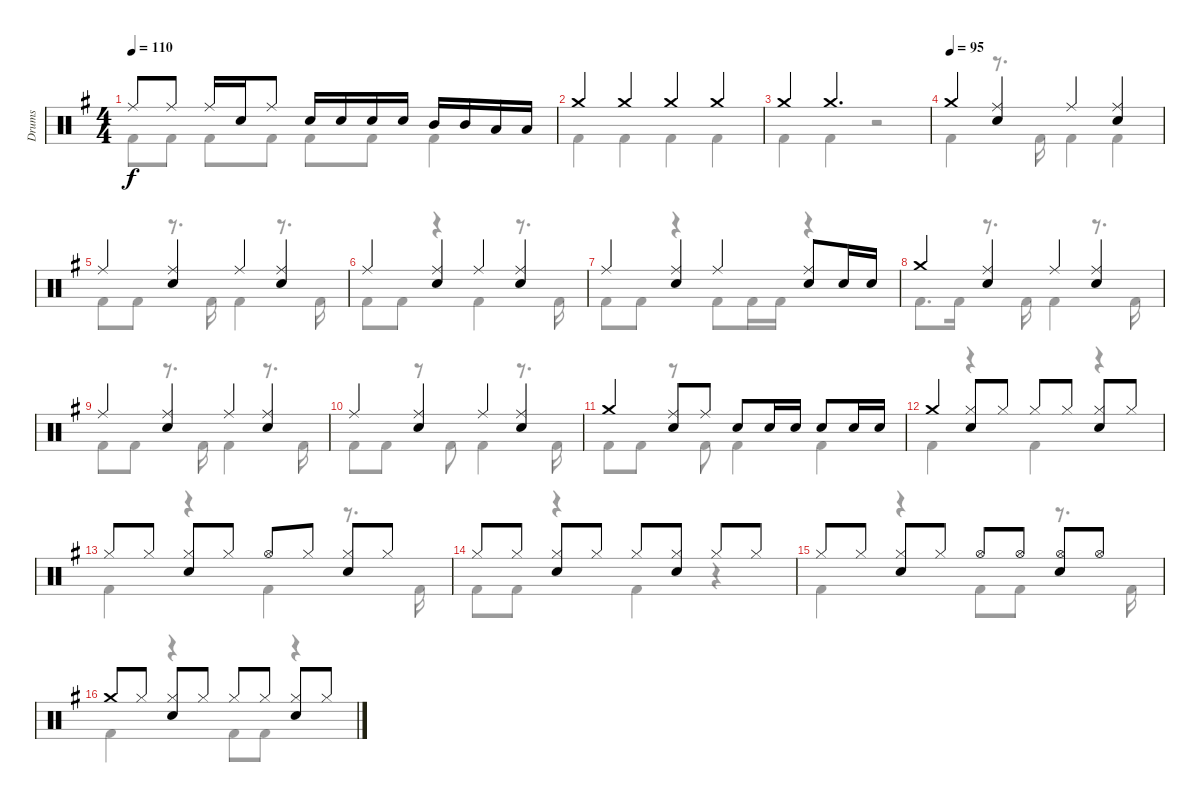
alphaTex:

\track ("Drums" "Drums") {instrument percussion}
\staff {score}
\articulation defaults
\voice
\ts (4 4)
\tempo 110
\clef neutral
\ks g "Ride (middle)".8{dy f} "Ride (middle)".8 "Ride (middle)".16 "Snare (hit) 2".16 "Ride (middle)".8 "Snare (hit) 2".16 "Snare (hit) 2".16 "Snare (hit) 2".16 "Snare (hit) 2".16 "Mid Tom (hit)".16 "Mid Tom (hit)".16 "Low Tom (hit)".16 "Low Tom (hit)".16
|
"Crash medium (hit)".4 "Crash medium (hit)".4 "Crash medium (hit)".4 "Crash medium (hit)".4 |
"Crash medium (hit)".4 "Crash medium (hit)".2{d} |
\tempo (95)
"Crash medium (hit)".4 ("Ride (middle)" "Snare (hit) 2").4 "Ride (middle)".4 ("Ride (middle)" "Snare (hit) 2").4 |
"Ride (middle)".4 ("Ride (middle)" "Snare (hit) 2").4 "Ride (middle)".4 ("Ride (middle)" "Snare (hit) 2").4 |
"Ride (middle)".4 ("Ride (middle)" "Snare (hit) 2").4 "Ride (middle)".4 ("Ride (middle)" "Snare (hit) 2").4 |
"Ride (middle)".4 ("Ride (middle)" "Snare (hit) 2").4 "Ride (middle)".4 ("Ride (middle)" "Snare (hit) 2").8 "Snare (hit) 2".16 "Snare (hit) 2".16 |
"Crash medium (hit)".4 ("Ride (middle)" "Snare (hit) 2").4 "Ride (middle)".4 ("Ride (middle)" "Snare (hit) 2").4 |
"Ride (middle)".4 ("Ride (middle)" "Snare (hit) 2").4 "Ride (middle)".4 ("Ride (middle)" "Snare (hit) 2").4 |
"Ride (middle)".4 ("Ride (middle)" "Snare (hit) 2").4 "Ride (middle)".4 ("Ride (middle)" "Snare (hit) 2").4 |
"Crash medium (hit)".4 ("Ride (middle)" "Snare (hit) 2").8 "Ride (middle)".8 "Snare (hit) 2".8 "Snare (hit) 2".16 "Snare (hit) 2".16 "Snare (hit) 2".8 "Snare (hit) 2".16 "Snare (hit) 2".16 |
"Crash medium (hit)".4 ("Hi-Hat (closed)" "Snare (hit) 2").8 "Hi-Hat (closed)".8 "Hi-Hat (closed)".8 "Hi-Hat (closed)".8 ("Hi-Hat (closed)" "Snare (hit) 2").8 "Hi-Hat (closed)".8 |
"Hi-Hat (closed)".8 "Hi-Hat (closed)".8 ("Hi-Hat (closed)" "Snare (hit) 2").8 "Hi-Hat (closed)".8 "Hi-Hat (open)".8 "Hi-Hat (closed)".8 ("Hi-Hat (closed)" "Snare (hit) 2").8 "Hi-Hat (closed)".8 |
"Hi-Hat (closed)".8 "Hi-Hat (closed)".8 ("Hi-Hat (closed)" "Snare (hit) 2").8 "Hi-Hat (closed)".8 "Hi-Hat (closed)".8 ("Hi-Hat (closed)" "Snare (hit) 2").8 "Hi-Hat (closed)".8 "Hi-Hat (closed)".8 |
"Hi-Hat (closed)".8 "Hi-Hat (closed)".8 ("Hi-Hat (closed)" "Snare (hit) 2").8 "Hi-Hat (closed)".8 "Hi-Hat (open)".8 "Hi-Hat (open)".8 ("Hi-Hat (open)" "Snare (hit) 2").8 "Hi-Hat (open)".8 |
"Crash medium (hit)".8 "Hi-Hat (closed)".8 ("Hi-Hat (closed)" "Snare (hit) 2").8 "Hi-Hat (closed)".8 "Hi-Hat (closed)".8 "Hi-Hat (closed)".8 ("Hi-Hat (closed)" "Snare (hit) 2").8 "Hi-Hat (closed)".8
\voice
\clef neutral
\ottava regular
\simile none
\ks g "Kick (hit) 2".8{dy f} "Kick (hit) 2".8 "Kick (hit) 2".8 "Kick (hit) 2".8 "Kick (hit) 2".8 "Kick (hit) 2".8 "Kick (hit) 2".4
|
"Kick (hit) 2".4 "Kick (hit) 2".4 "Kick (hit) 2".4 "Kick (hit) 2".4 |
"Kick (hit) 2".4 "Kick (hit) 2".4 r.2 |
"Kick (hit) 2".4 r.8{d} "Kick (hit) 2".16 "Kick (hit) 2".4 "Kick (hit) 2".4 |
"Kick (hit) 2".8 "Kick (hit) 2".8 r.8{d} "Kick (hit) 2".16 "Kick (hit) 2".4 r.8{d} "Kick (hit) 2".16 |
"Kick (hit) 2".8 "Kick (hit) 2".8 r.4 "Kick (hit) 2".4 r.8{d} "Kick (hit) 2".16 |
"Kick (hit) 2".8 "Kick (hit) 2".8 r.4 "Kick (hit) 2".8 "Kick (hit) 2".16 "Kick (hit) 2".16 r.4 |
"Kick (hit) 2".8{d} "Kick (hit) 2".16 r.8{d} "Kick (hit) 2".16 "Kick (hit) 2".4 r.8{d} "Kick (hit) 2".16 |
"Kick (hit) 2".8 "Kick (hit) 2".8 r.8{d} "Kick (hit) 2".16 "Kick (hit) 2".4 r.8{d} "Kick (hit) 2".16 |
"Kick (hit) 2".8 "Kick (hit) 2".8 r.8 "Kick (hit) 2".8 "Kick (hit) 2".4 r.8{d} "Kick (hit) 2".16 |
"Kick (hit) 2".8 "Kick (hit) 2".8 r.8 "Kick (hit) 2".8 "Kick (hit) 2".4 "Kick (hit) 2".4 |
"Kick (hit) 2".4 r.4 "Kick (hit) 2".4 r.4 |
"Kick (hit) 2".4 r.4 "Kick (hit) 2".4 r.8{d} "Kick (hit) 2".16 |
"Kick (hit) 2".8 "Kick (hit) 2".8 r.4 "Kick (hit) 2".4 r.4 |
"Kick (hit) 2".4 r.4 "Kick (hit) 2".8 "Kick (hit) 2".8 r.8{d} "Kick (hit) 2".16 |
"Kick (hit) 2".4 r.4 "Kick (hit) 2".8 "Kick (hit) 2".8 r.4
